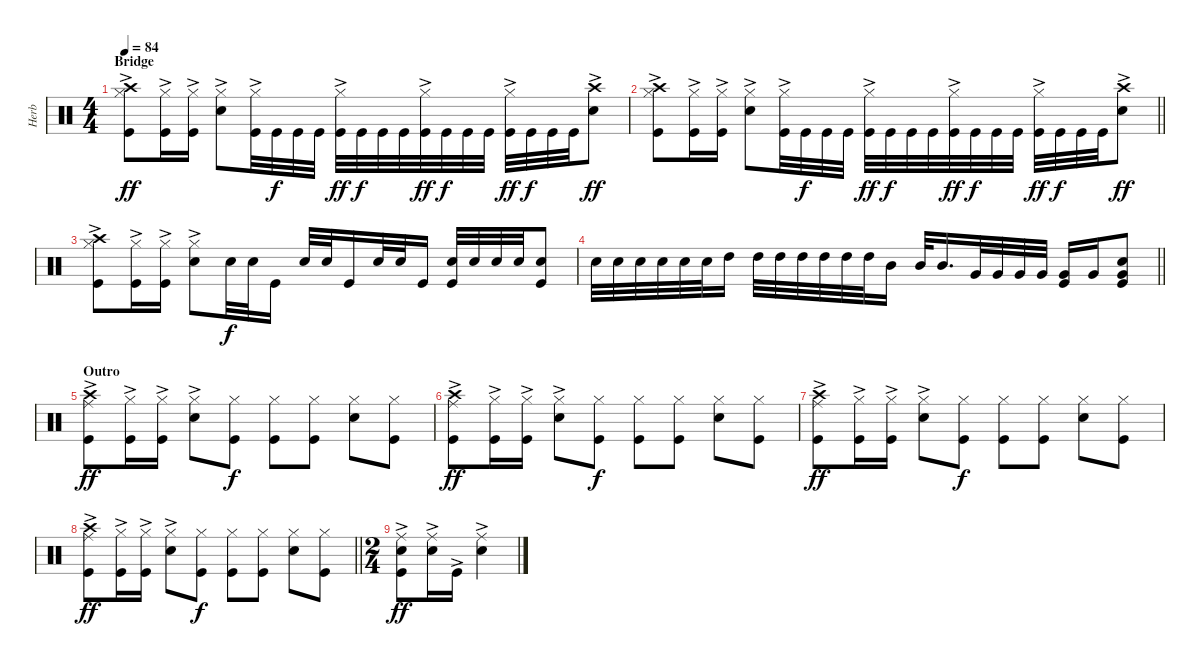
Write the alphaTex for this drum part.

\track ("Herb" "Herb") {instrument percussion}
\staff {score}
\articulation defaults
\ts (4 4)
\section ("" "Bridge")
\tempo 84
\clef neutral
\ks c
("Hi-Hat (closed)"{ac} "Crash high (hit)"{ac} "Kick (hit)").8{dy ff} ("Hi-Hat (closed)"{ac} "Kick (hit)").16 ("Hi-Hat (closed)"{ac} "Kick (hit)").16 ("Hi-Hat (closed)"{ac} "Snare (hit) 2"{ac}).8 ("Hi-Hat (closed)"{ac} "Kick (hit)").32 "Kick (hit)".32{dy f} "Kick (hit)".32 "Kick (hit)".32 ("Hi-Hat (closed)"{ac} "Kick (hit)").32{dy ff} "Kick (hit)".32{dy f} "Kick (hit)".32 "Kick (hit)".32 ("Hi-Hat (closed)"{ac} "Kick (hit)").32{dy ff} "Kick (hit)".32{dy f} "Kick (hit)".32 "Kick (hit)".32 ("Hi-Hat (closed)"{ac} "Kick (hit)").32{dy ff} "Kick (hit)".32{dy f} "Kick (hit)".32 "Kick (hit)".32 ("Crash high (hit)"{ac} "Snare (hit) 2").8{dy ff} |
\barLineRight lightlight
("Hi-Hat (closed)"{ac} "Crash high (hit)" "Kick (hit)").8 ("Hi-Hat (closed)"{ac} "Kick (hit)").16 ("Hi-Hat (closed)"{ac} "Kick (hit)").16 ("Hi-Hat (closed)"{ac} "Snare (hit) 2"{ac}).8 ("Hi-Hat (closed)"{ac} "Kick (hit)").32 "Kick (hit)".32{dy f} "Kick (hit)".32 "Kick (hit)".32 ("Hi-Hat (closed)"{ac} "Kick (hit)").32{dy ff} "Kick (hit)".32{dy f} "Kick (hit)".32 "Kick (hit)".32 ("Hi-Hat (closed)"{ac} "Kick (hit)").32{dy ff} "Kick (hit)".32{dy f} "Kick (hit)".32 "Kick (hit)".32 ("Hi-Hat (closed)"{ac} "Kick (hit)").32{dy ff} "Kick (hit)".32{dy f} "Kick (hit)".32 "Kick (hit)".32 ("Crash high (hit)"{ac} "Snare (hit) 2").8{dy ff} |
("Hi-Hat (closed)"{ac} "Crash high (hit)" "Kick (hit)").8 ("Hi-Hat (closed)"{ac} "Kick (hit)").16 ("Hi-Hat (closed)"{ac} "Kick (hit)").16 ("Hi-Hat (closed)"{ac} "Snare (hit) 2"{ac}).8 "Snare (hit) 2".32{dy f} "Snare (hit) 2".32 "Kick (hit)".16 "Snare (hit) 2".32 "Snare (hit) 2".32 "Kick (hit)".16 "Snare (hit) 2".32 "Snare (hit) 2".32 "Kick (hit)".16 ("Snare (hit) 2" "Kick (hit)").32 "Snare (hit) 2".32 "Snare (hit) 2".32 "Snare (hit) 2".32 ("Snare (hit) 2" "Kick (hit)").8 |
\barLineRight lightlight "Snare (hit) 2".32 "Snare (hit) 2".32 "Snare (hit) 2".32 "Snare (hit) 2".32 "Snare (hit) 2".32 "Snare (hit) 2".32 "High Tom (hit)".16 "High Tom (hit)".32 "High Tom (hit)".32 "High Tom (hit)".32 "High Tom (hit)".32 "High Tom (hit)".32 "High Tom (hit)".32 "Mid Tom (hit)".16 "Mid Tom (hit)".32 "Mid Tom (hit)".16{d} "Very Low Tom (hit)".32 "Very Low Tom (hit)".32 "Very Low Tom (hit)".32 "Very Low Tom (hit)".32
("Very Low Tom (hit)" "Kick (hit)").16 "Very Low Tom (hit)".16 ("Snare (hit) 2" "Very Low Tom (hit)" "Kick (hit)").8 |
\section ("" "Outro")
("Ride (middle)"{ac} "Crash high (hit)" "Kick (hit)").8{dy ff} ("Hi-Hat (closed)"{ac} "Kick (hit)").16 ("Hi-Hat (closed)"{ac} "Kick (hit)").16 ("Hi-Hat (closed)"{ac} "Snare (hit) 2"{ac}).8 ("Hi-Hat (closed)" "Kick (hit)").8{dy f} ("Hi-Hat (closed)" "Kick (hit)").8 ("Hi-Hat (closed)" "Kick (hit)").8 ("Hi-Hat (closed)" "Snare (hit) 2").8 ("Hi-Hat (closed)" "Kick (hit)").8 |
("Ride (middle)"{ac} "Crash high (hit)" "Kick (hit)").8{dy ff} ("Hi-Hat (closed)"{ac} "Kick (hit)").16 ("Hi-Hat (closed)"{ac} "Kick (hit)").16 ("Hi-Hat (closed)"{ac} "Snare (hit) 2"{ac}).8 ("Hi-Hat (closed)" "Kick (hit)").8{dy f} ("Hi-Hat (closed)" "Kick (hit)").8 ("Hi-Hat (closed)" "Kick (hit)").8 ("Hi-Hat (closed)" "Snare (hit) 2").8 ("Hi-Hat (closed)" "Kick (hit)").8 |
("Ride (middle)"{ac} "Crash high (hit)" "Kick (hit)").8{dy ff} ("Hi-Hat (closed)"{ac} "Kick (hit)").16 ("Hi-Hat (closed)"{ac} "Kick (hit)").16 ("Hi-Hat (closed)"{ac} "Snare (hit) 2"{ac}).8 ("Hi-Hat (closed)" "Kick (hit)").8{dy f} ("Hi-Hat (closed)" "Kick (hit)").8 ("Hi-Hat (closed)" "Kick (hit)").8 ("Hi-Hat (closed)" "Snare (hit) 2").8 ("Hi-Hat (closed)" "Kick (hit)").8 |
\barLineRight lightlight
("Ride (middle)"{ac} "Crash high (hit)" "Kick (hit)").8{dy ff} ("Hi-Hat (closed)"{ac} "Kick (hit)").16 ("Hi-Hat (closed)"{ac} "Kick (hit)").16 ("Hi-Hat (closed)"{ac} "Snare (hit) 2"{ac}).8 ("Hi-Hat (closed)" "Kick (hit)").8{dy f} ("Hi-Hat (closed)" "Kick (hit)").8 ("Hi-Hat (closed)" "Kick (hit)").8 ("Hi-Hat (closed)" "Snare (hit) 2").8 ("Hi-Hat (closed)" "Kick (hit)").8 |
\ts (2 4)
("Ride (middle)"{ac} "Snare (hit) 2"{ac} "Kick (hit)"{ac}).8{dy ff} ("Ride (middle)"{ac} "Snare (hit) 2"{ac}).16 "Kick (hit)"{ac}.16 ("Ride (middle)"{ac} "Snare (hit) 2"{ac}).4
